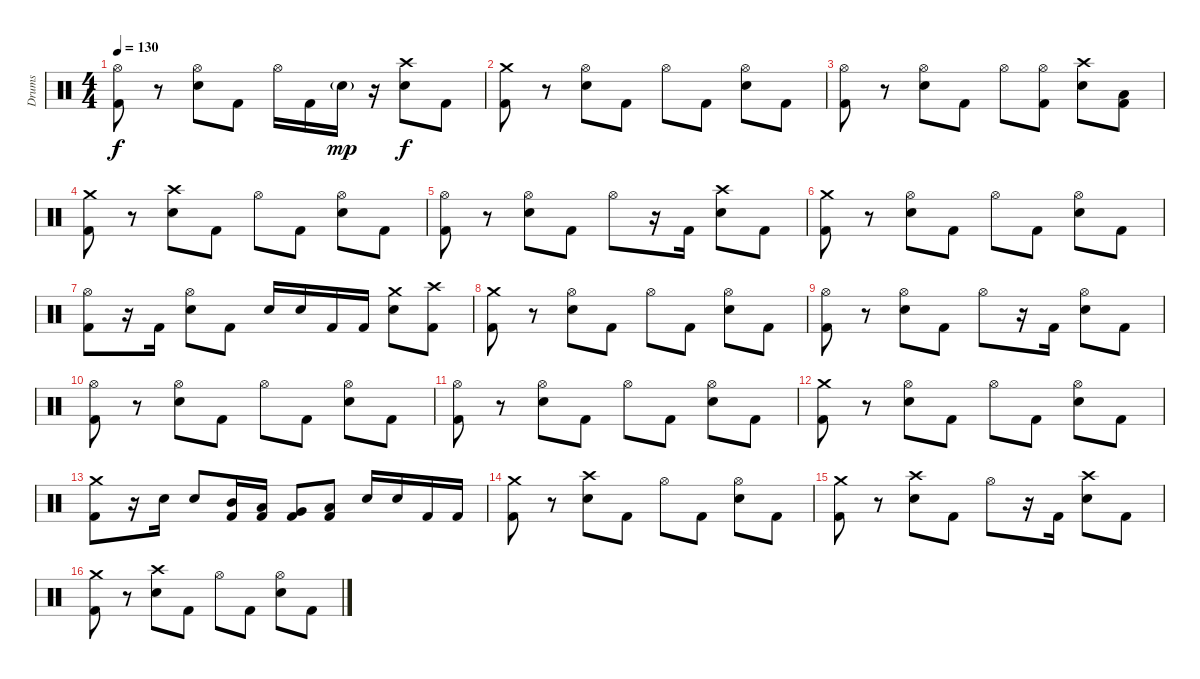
\track ("Drums" "Drums") {instrument percussion}
\staff {score}
\articulation defaults
\ts (4 4)
\tempo 130
\clef neutral
\ks c
("Hi-Hat (open)" "Kick (hit) 2").8{dy f} r.8 ("Hi-Hat (open)" "Electric Snare (hit)").8 "Kick (hit) 2".8 "Hi-Hat (open)".16 "Kick (hit) 2".16 "Electric Snare (hit)"{g}.16{dy mp} r.16 ("Crash high (hit)" "Electric Snare (hit)").8{dy f} "Kick (hit) 2".8 |
("Crash medium (hit)" "Kick (hit) 2").8 r.8 ("Hi-Hat (open)" "Electric Snare (hit)").8 "Kick (hit) 2".8 "Hi-Hat (open)".8 "Kick (hit) 2".8 ("Hi-Hat (open)" "Electric Snare (hit)").8 "Kick (hit) 2".8 |
("Hi-Hat (open)" "Kick (hit) 2").8 r.8 ("Hi-Hat (open)" "Electric Snare (hit)").8 "Kick (hit) 2".8 "Hi-Hat (open)".8 ("Hi-Hat (open)" "Kick (hit) 2").8 ("Crash high (hit)" "Electric Snare (hit)").8 ("Low Floor Tom (hit)" "Kick (hit) 2").8 |
\section ("" "")
("Crash medium (hit)" "Kick (hit) 2").8 r.8 ("Crash high (hit)" "Electric Snare (hit)").8 "Kick (hit) 2".8 "Hi-Hat (open)".8 "Kick (hit) 2".8 ("Hi-Hat (open)" "Electric Snare (hit)").8 "Kick (hit) 2".8 |
("Hi-Hat (open)" "Kick (hit) 2").8 r.8 ("Hi-Hat (open)" "Electric Snare (hit)").8 "Kick (hit) 2".8 "Hi-Hat (open)".8 r.16 "Kick (hit) 2".16 ("Crash high (hit)" "Electric Snare (hit)").8 "Kick (hit) 2".8 |
("Crash medium (hit)" "Kick (hit) 2").8 r.8 ("Hi-Hat (open)" "Electric Snare (hit)").8 "Kick (hit) 2".8 "Hi-Hat (open)".8 "Kick (hit) 2".8 ("Hi-Hat (open)" "Electric Snare (hit)").8 "Kick (hit) 2".8 |
("Hi-Hat (open)" "Kick (hit) 2").8 r.16 "Kick (hit) 2".16 ("Hi-Hat (open)" "Electric Snare (hit)").8 "Kick (hit) 2".8 "Electric Snare (hit)".16 "Electric Snare (hit)".16 "Kick (hit) 2".16 "Kick (hit) 2".16 ("Crash medium (hit)" "Electric Snare (hit)").8 ("Crash high (hit)" "Kick (hit) 2").8 |
\section ("" "")
("Crash medium (hit)" "Kick (hit) 2").8 r.8 ("Hi-Hat (open)" "Electric Snare (hit)").8 "Kick (hit) 2".8 "Hi-Hat (open)".8 "Kick (hit) 2".8 ("Hi-Hat (open)" "Electric Snare (hit)").8 "Kick (hit) 2".8 |
("Hi-Hat (open)" "Kick (hit) 2").8 r.8 ("Hi-Hat (open)" "Electric Snare (hit)").8 "Kick (hit) 2".8 "Hi-Hat (open)".8 r.16 "Kick (hit) 2".16 ("Hi-Hat (open)" "Electric Snare (hit)").8 "Kick (hit) 2".8 |
("Hi-Hat (open)" "Kick (hit) 2").8 r.8 ("Hi-Hat (open)" "Electric Snare (hit)").8 "Kick (hit) 2".8 "Hi-Hat (open)".8 "Kick (hit) 2".8 ("Hi-Hat (open)" "Electric Snare (hit)").8 "Kick (hit) 2".8 |
("Hi-Hat (open)" "Kick (hit) 2").8 r.8 ("Hi-Hat (open)" "Electric Snare (hit)").8 "Kick (hit) 2".8 "Hi-Hat (open)".8 "Kick (hit) 2".8 ("Hi-Hat (open)" "Electric Snare (hit)").8 "Kick (hit) 2".8 |
("Crash medium (hit)" "Kick (hit) 2").8 r.8 ("Hi-Hat (open)" "Electric Snare (hit)").8 "Kick (hit) 2".8 "Hi-Hat (open)".8 "Kick (hit) 2".8 ("Hi-Hat (open)" "Electric Snare (hit)").8 "Kick (hit) 2".8 |
("Crash medium (hit)" "Kick (hit) 2").8 r.16 "Electric Snare (hit)".16 "Electric Snare (hit)".8 ("Mid Tom (hit)" "Kick (hit) 2").16 ("Low Tom (hit)" "Kick (hit) 2").16 ("Very Low Tom (hit)" "Kick (hit) 2").8 ("Low Floor Tom (hit)" "Kick (hit) 2").8 "Electric Snare (hit)".16 "Electric Snare (hit)".16 "Kick (hit) 2".16 "Kick (hit) 2".16 |
\section ("" "")
("Crash medium (hit)" "Kick (hit) 2").8 r.8 ("Crash high (hit)" "Electric Snare (hit)").8 "Kick (hit) 2".8 "Hi-Hat (open)".8 "Kick (hit) 2".8 ("Hi-Hat (open)" "Electric Snare (hit)").8 "Kick (hit) 2".8 |
("Crash medium (hit)" "Kick (hit) 2").8 r.8 ("Crash high (hit)" "Electric Snare (hit)").8 "Kick (hit) 2".8 "Hi-Hat (open)".8 r.16 "Kick (hit) 2".16 ("Crash high (hit)" "Electric Snare (hit)").8 "Kick (hit) 2".8 |
("Crash medium (hit)" "Kick (hit) 2").8 r.8 ("Crash high (hit)" "Electric Snare (hit)").8 "Kick (hit) 2".8 "Hi-Hat (open)".8 "Kick (hit) 2".8 ("Hi-Hat (open)" "Electric Snare (hit)").8 "Kick (hit) 2".8
